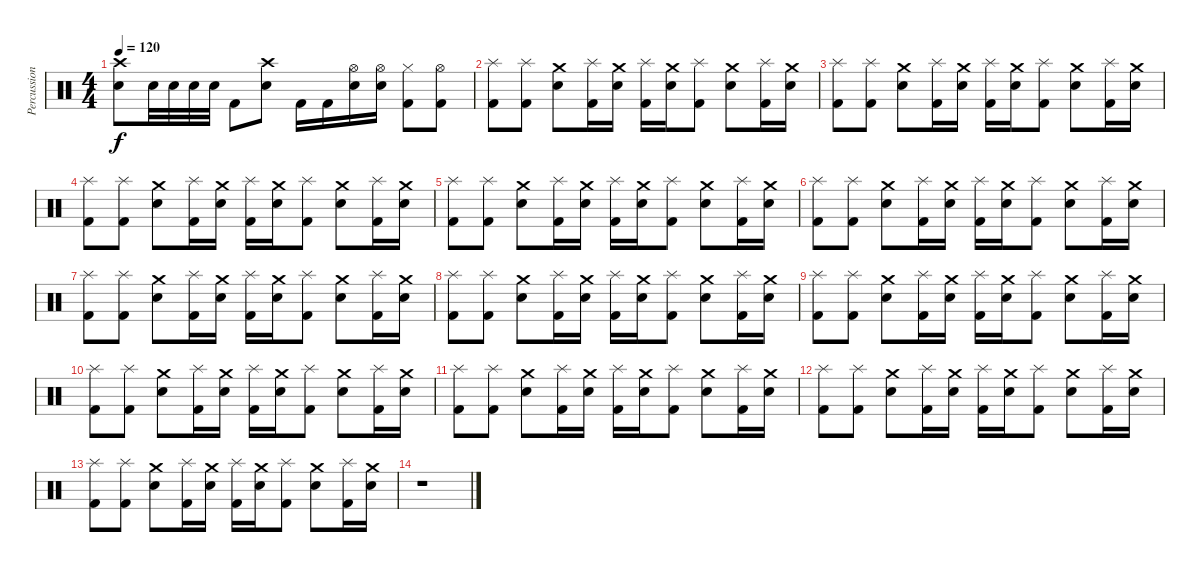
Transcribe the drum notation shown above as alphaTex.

\track ("Percussions" "Percussion") {instrument percussion}
\staff {score}
\articulation defaults
\ts (4 4)
\tempo 120
\clef neutral
\ks c
("Crash high (hit)" "Snare (hit) 2").8{dy f} "Snare (hit) 2".32 "Snare (hit) 2".32 "Snare (hit) 2".32 "Snare (hit) 2".32 "Kick (hit) 2".8 ("Crash high (hit)" "Snare (hit) 2").8 "Kick (hit) 2".16 "Kick (hit) 2".16 ("Hi-Hat (open)" "Snare (hit) 2").16 ("Hi-Hat (open)" "Snare (hit) 2").16 ("Hi-Hat (closed)" "Kick (hit) 2").8 ("Hi-Hat (open)" "Kick (hit) 2").8 |
("Splash (hit)" "Kick (hit) 2").8 ("Splash (hit)" "Kick (hit) 2").8 ("Crash medium (hit)" "Snare (hit) 2").8 ("Splash (hit)" "Kick (hit) 2").16 ("Crash medium (hit)" "Snare (hit) 2").16 ("Splash (hit)" "Kick (hit) 2").16 ("Crash medium (hit)" "Snare (hit) 2").16 ("Splash (hit)" "Kick (hit) 2").8 ("Crash medium (hit)" "Snare (hit) 2").8 ("Splash (hit)" "Kick (hit) 2").16 ("Crash medium (hit)" "Snare (hit) 2").16 |
("Splash (hit)" "Kick (hit) 2").8 ("Splash (hit)" "Kick (hit) 2").8 ("Crash medium (hit)" "Snare (hit) 2").8 ("Splash (hit)" "Kick (hit) 2").16 ("Crash medium (hit)" "Snare (hit) 2").16 ("Splash (hit)" "Kick (hit) 2").16 ("Crash medium (hit)" "Snare (hit) 2").16 ("Splash (hit)" "Kick (hit) 2").8 ("Crash medium (hit)" "Snare (hit) 2").8 ("Splash (hit)" "Kick (hit) 2").16 ("Crash medium (hit)" "Snare (hit) 2").16 |
("Splash (hit)" "Kick (hit) 2").8 ("Splash (hit)" "Kick (hit) 2").8 ("Crash medium (hit)" "Snare (hit) 2").8 ("Splash (hit)" "Kick (hit) 2").16 ("Crash medium (hit)" "Snare (hit) 2").16 ("Splash (hit)" "Kick (hit) 2").16 ("Crash medium (hit)" "Snare (hit) 2").16 ("Splash (hit)" "Kick (hit) 2").8 ("Crash medium (hit)" "Snare (hit) 2").8 ("Splash (hit)" "Kick (hit) 2").16 ("Crash medium (hit)" "Snare (hit) 2").16 |
("Splash (hit)" "Kick (hit) 2").8 ("Splash (hit)" "Kick (hit) 2").8 ("Crash medium (hit)" "Snare (hit) 2").8 ("Splash (hit)" "Kick (hit) 2").16 ("Crash medium (hit)" "Snare (hit) 2").16 ("Splash (hit)" "Kick (hit) 2").16 ("Crash medium (hit)" "Snare (hit) 2").16 ("Splash (hit)" "Kick (hit) 2").8 ("Crash medium (hit)" "Snare (hit) 2").8 ("Splash (hit)" "Kick (hit) 2").16 ("Crash medium (hit)" "Snare (hit) 2").16 |
("Splash (hit)" "Kick (hit) 2").8 ("Splash (hit)" "Kick (hit) 2").8 ("Crash medium (hit)" "Snare (hit) 2").8 ("Splash (hit)" "Kick (hit) 2").16 ("Crash medium (hit)" "Snare (hit) 2").16 ("Splash (hit)" "Kick (hit) 2").16 ("Crash medium (hit)" "Snare (hit) 2").16 ("Splash (hit)" "Kick (hit) 2").8 ("Crash medium (hit)" "Snare (hit) 2").8 ("Splash (hit)" "Kick (hit) 2").16 ("Crash medium (hit)" "Snare (hit) 2").16 |
("Splash (hit)" "Kick (hit) 2").8 ("Splash (hit)" "Kick (hit) 2").8 ("Crash medium (hit)" "Snare (hit) 2").8 ("Splash (hit)" "Kick (hit) 2").16 ("Crash medium (hit)" "Snare (hit) 2").16 ("Splash (hit)" "Kick (hit) 2").16 ("Crash medium (hit)" "Snare (hit) 2").16 ("Splash (hit)" "Kick (hit) 2").8 ("Crash medium (hit)" "Snare (hit) 2").8 ("Splash (hit)" "Kick (hit) 2").16 ("Crash medium (hit)" "Snare (hit) 2").16 |
("Splash (hit)" "Kick (hit) 2").8 ("Splash (hit)" "Kick (hit) 2").8 ("Crash medium (hit)" "Snare (hit) 2").8 ("Splash (hit)" "Kick (hit) 2").16 ("Crash medium (hit)" "Snare (hit) 2").16 ("Splash (hit)" "Kick (hit) 2").16 ("Crash medium (hit)" "Snare (hit) 2").16 ("Splash (hit)" "Kick (hit) 2").8 ("Crash medium (hit)" "Snare (hit) 2").8 ("Splash (hit)" "Kick (hit) 2").16 ("Crash medium (hit)" "Snare (hit) 2").16 |
("Splash (hit)" "Kick (hit) 2").8 ("Splash (hit)" "Kick (hit) 2").8 ("Crash medium (hit)" "Snare (hit) 2").8 ("Splash (hit)" "Kick (hit) 2").16 ("Crash medium (hit)" "Snare (hit) 2").16 ("Splash (hit)" "Kick (hit) 2").16 ("Crash medium (hit)" "Snare (hit) 2").16 ("Splash (hit)" "Kick (hit) 2").8 ("Crash medium (hit)" "Snare (hit) 2").8 ("Splash (hit)" "Kick (hit) 2").16 ("Crash medium (hit)" "Snare (hit) 2").16 |
("Splash (hit)" "Kick (hit) 2").8 ("Splash (hit)" "Kick (hit) 2").8 ("Crash medium (hit)" "Snare (hit) 2").8 ("Splash (hit)" "Kick (hit) 2").16 ("Crash medium (hit)" "Snare (hit) 2").16 ("Splash (hit)" "Kick (hit) 2").16 ("Crash medium (hit)" "Snare (hit) 2").16 ("Splash (hit)" "Kick (hit) 2").8 ("Crash medium (hit)" "Snare (hit) 2").8 ("Splash (hit)" "Kick (hit) 2").16 ("Crash medium (hit)" "Snare (hit) 2").16 |
("Splash (hit)" "Kick (hit) 2").8 ("Splash (hit)" "Kick (hit) 2").8 ("Crash medium (hit)" "Snare (hit) 2").8 ("Splash (hit)" "Kick (hit) 2").16 ("Crash medium (hit)" "Snare (hit) 2").16 ("Splash (hit)" "Kick (hit) 2").16 ("Crash medium (hit)" "Snare (hit) 2").16 ("Splash (hit)" "Kick (hit) 2").8 ("Crash medium (hit)" "Snare (hit) 2").8 ("Splash (hit)" "Kick (hit) 2").16 ("Crash medium (hit)" "Snare (hit) 2").16 |
("Splash (hit)" "Kick (hit) 2").8 ("Splash (hit)" "Kick (hit) 2").8 ("Crash medium (hit)" "Snare (hit) 2").8 ("Splash (hit)" "Kick (hit) 2").16 ("Crash medium (hit)" "Snare (hit) 2").16 ("Splash (hit)" "Kick (hit) 2").16 ("Crash medium (hit)" "Snare (hit) 2").16 ("Splash (hit)" "Kick (hit) 2").8 ("Crash medium (hit)" "Snare (hit) 2").8 ("Splash (hit)" "Kick (hit) 2").16 ("Crash medium (hit)" "Snare (hit) 2").16 |
("Splash (hit)" "Kick (hit) 2").8 ("Splash (hit)" "Kick (hit) 2").8 ("Crash medium (hit)" "Snare (hit) 2").8 ("Splash (hit)" "Kick (hit) 2").16 ("Crash medium (hit)" "Snare (hit) 2").16 ("Splash (hit)" "Kick (hit) 2").16 ("Crash medium (hit)" "Snare (hit) 2").16 ("Splash (hit)" "Kick (hit) 2").8 ("Crash medium (hit)" "Snare (hit) 2").8 ("Splash (hit)" "Kick (hit) 2").16 ("Crash medium (hit)" "Snare (hit) 2").16 |
r.1
